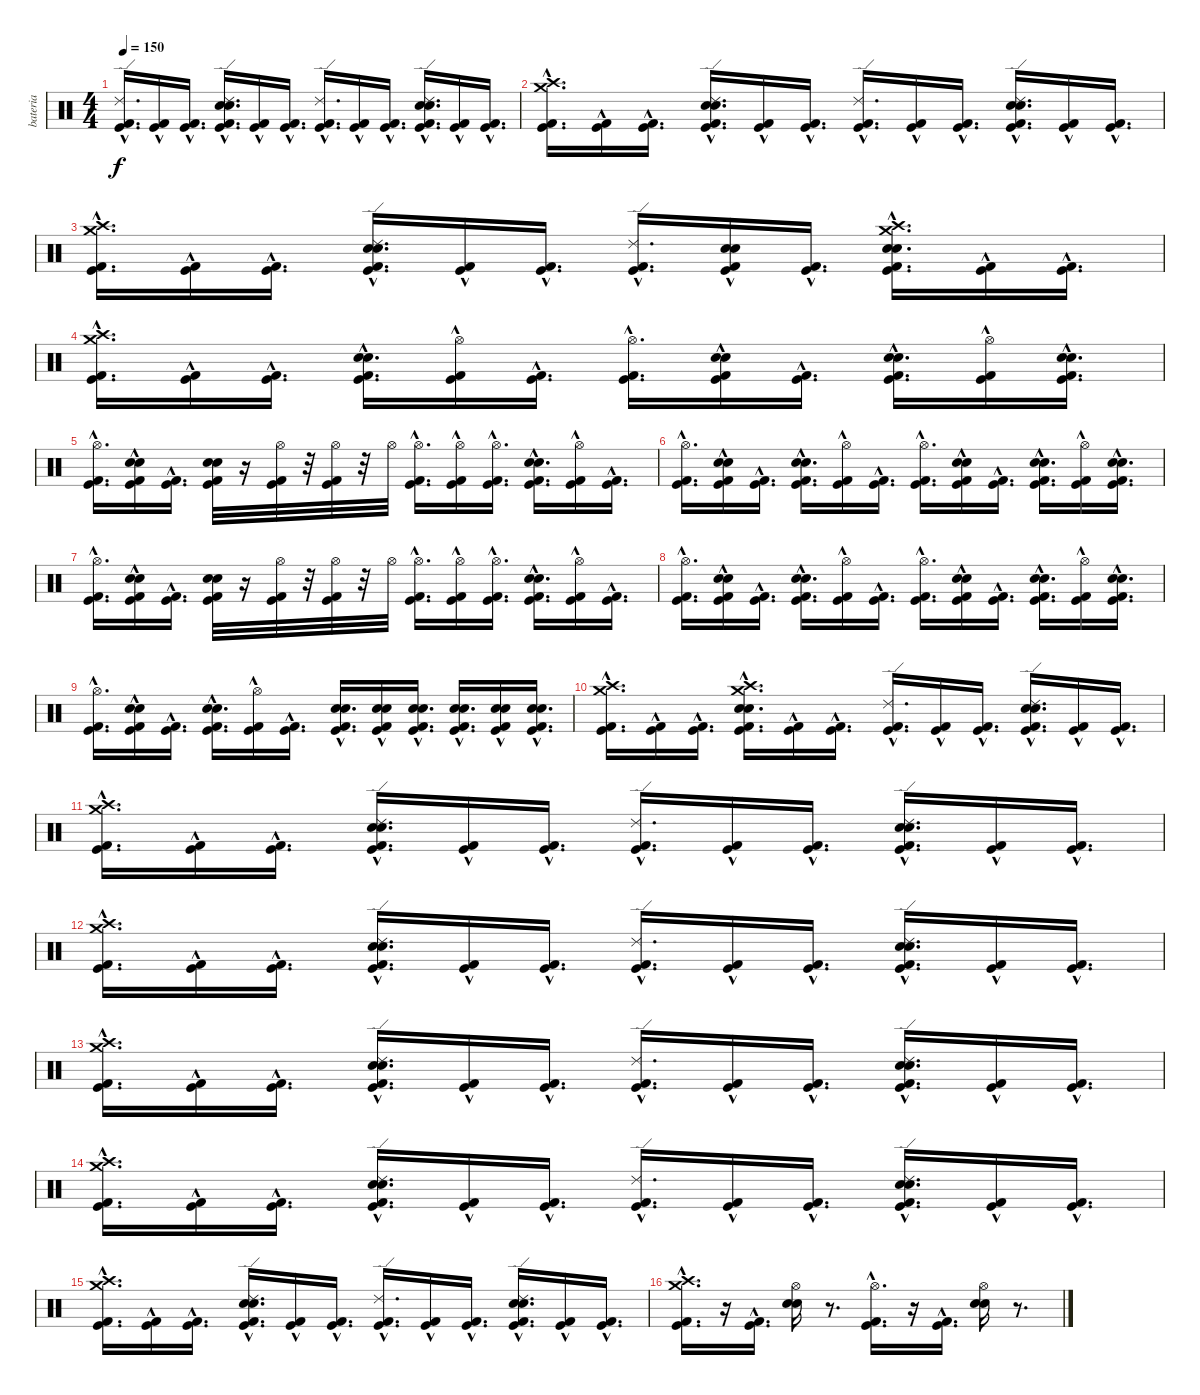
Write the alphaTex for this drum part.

\track ("bateria" "bateria") {instrument percussion}
\staff {score}
\articulation defaults
\ts (4 4)
\tempo 150
\clef neutral
\ks c
("Ride (edge) 2"{hac} "Kick (hit) 2"{hac} "Kick (hit)"{hac}).16{d dy f} ("Kick (hit) 2"{hac} "Kick (hit)"{hac}).16 ("Kick (hit) 2"{hac} "Kick (hit)"{hac}).16{d} ("Electric Snare (hit)"{hac} "Snare (hit) 2"{hac} "Ride (edge) 2"{hac} "Kick (hit) 2"{hac} "Kick (hit)"{hac}).16{d} ("Kick (hit) 2"{hac} "Kick (hit)"{hac}).16 ("Kick (hit) 2"{hac} "Kick (hit)"{hac}).16{d} ("Ride (edge) 2"{hac} "Kick (hit) 2"{hac} "Kick (hit)"{hac}).16{d} ("Kick (hit) 2"{hac} "Kick (hit)"{hac}).16 ("Kick (hit) 2"{hac} "Kick (hit)"{hac}).16{d} ("Electric Snare (hit)"{hac} "Snare (hit) 2"{hac} "Ride (edge) 2"{hac} "Kick (hit) 2"{hac} "Kick (hit)"{hac}).16{d} ("Kick (hit) 2"{hac} "Kick (hit)"{hac}).16 ("Kick (hit) 2"{hac} "Kick (hit)"{hac}).16{d} |
("Crash high (hit)"{hac} "Crash medium (hit)"{hac} "Kick (hit) 2"{hac} "Kick (hit)"{hac}).16{d} ("Kick (hit) 2"{hac} "Kick (hit)"{hac}).16 ("Kick (hit) 2"{hac} "Kick (hit)"{hac}).16{d} ("Electric Snare (hit)"{hac} "Snare (hit) 2"{hac} "Ride (edge) 2"{hac} "Kick (hit) 2"{hac} "Kick (hit)"{hac}).16{d} ("Kick (hit) 2"{hac} "Kick (hit)"{hac}).16 ("Kick (hit) 2"{hac} "Kick (hit)"{hac}).16{d} ("Ride (edge) 2"{hac} "Kick (hit) 2"{hac} "Kick (hit)"{hac}).16{d} ("Kick (hit) 2"{hac} "Kick (hit)"{hac}).16 ("Kick (hit) 2"{hac} "Kick (hit)"{hac}).16{d} ("Electric Snare (hit)"{hac} "Snare (hit) 2"{hac} "Ride (edge) 2"{hac} "Kick (hit) 2"{hac} "Kick (hit)"{hac}).16{d} ("Kick (hit) 2"{hac} "Kick (hit)"{hac}).16 ("Kick (hit) 2"{hac} "Kick (hit)"{hac}).16{d} |
("Crash high (hit)"{hac} "Crash medium (hit)"{hac} "Kick (hit) 2"{hac} "Kick (hit)"{hac}).16{d} ("Kick (hit) 2"{hac} "Kick (hit)"{hac}).16 ("Kick (hit) 2"{hac} "Kick (hit)"{hac}).16{d} ("Electric Snare (hit)"{hac} "Snare (hit) 2"{hac} "Ride (edge) 2"{hac} "Kick (hit) 2"{hac} "Kick (hit)"{hac}).16{d} ("Kick (hit) 2"{hac} "Kick (hit)"{hac}).16 ("Kick (hit) 2"{hac} "Kick (hit)"{hac}).16{d} ("Ride (edge) 2"{hac} "Kick (hit) 2"{hac} "Kick (hit)"{hac}).16{d} ("Electric Snare (hit)"{hac} "Snare (hit) 2"{hac} "Kick (hit) 2"{hac} "Kick (hit)"{hac}).16 ("Kick (hit) 2"{hac} "Kick (hit)"{hac}).16{d} ("Crash medium (hit)"{hac} "Crash high (hit)"{hac} "Electric Snare (hit)"{hac} "Snare (hit) 2"{hac} "Kick (hit) 2"{hac} "Kick (hit)"{hac}).16{d} ("Kick (hit) 2"{hac} "Kick (hit)"{hac}).16 ("Kick (hit) 2"{hac} "Kick (hit)"{hac}).16{d} |
("Crash high (hit)"{hac} "Crash medium (hit)"{hac} "Kick (hit) 2"{hac} "Kick (hit)"{hac}).16{d} ("Kick (hit) 2"{hac} "Kick (hit)"{hac}).16 ("Kick (hit) 2"{hac} "Kick (hit)"{hac}).16{d} ("Electric Snare (hit)"{hac} "Snare (hit) 2"{hac} "Kick (hit) 2"{hac} "Kick (hit)"{hac}).16{d} ("Hi-Hat (open)"{hac} "Kick (hit) 2"{hac} "Kick (hit)"{hac}).16 ("Kick (hit) 2"{hac} "Kick (hit)"{hac}).16{d} ("Hi-Hat (open)"{hac} "Kick (hit) 2"{hac} "Kick (hit)"{hac}).16{d} ("Electric Snare (hit)"{hac} "Snare (hit) 2"{hac} "Kick (hit) 2"{hac} "Kick (hit)"{hac}).16 ("Kick (hit) 2"{hac} "Kick (hit)"{hac}).16{d} ("Electric Snare (hit)"{hac} "Snare (hit) 2"{hac} "Kick (hit) 2"{hac} "Kick (hit)"{hac}).16{d} ("Hi-Hat (open)"{hac} "Kick (hit) 2"{hac} "Kick (hit)"{hac}).16 ("Electric Snare (hit)"{hac} "Snare (hit) 2"{hac} "Kick (hit) 2"{hac} "Kick (hit)"{hac}).16{d} |
("Hi-Hat (open)"{hac} "Kick (hit) 2"{hac} "Kick (hit)"{hac}).16{d} ("Electric Snare (hit)"{hac} "Snare (hit) 2"{hac} "Kick (hit) 2"{hac} "Kick (hit)"{hac}).16 ("Kick (hit) 2"{hac} "Kick (hit)"{hac}).16{d} ("Electric Snare (hit)" "Snare (hit) 2" "Kick (hit) 2" "Kick (hit)").32 r.16 ("Hi-Hat (open)" "Kick (hit) 2" "Kick (hit)").32 r.32 ("Hi-Hat (open)" "Kick (hit)" "Kick (hit) 2").32 r.32 "Hi-Hat (open)".32 ("Hi-Hat (open)"{hac} "Kick (hit) 2"{hac} "Kick (hit)"{hac}).16{d} ("Hi-Hat (open)"{hac} "Kick (hit) 2"{hac} "Kick (hit)"{hac}).16 ("Hi-Hat (open)"{hac} "Kick (hit) 2"{hac} "Kick (hit)"{hac}).16{d} ("Electric Snare (hit)"{hac} "Snare (hit) 2"{hac} "Kick (hit) 2"{hac} "Kick (hit)"{hac}).16{d} ("Hi-Hat (open)"{hac} "Kick (hit) 2"{hac} "Kick (hit)"{hac}).16 ("Kick (hit) 2"{hac} "Kick (hit)"{hac}).16{d} |
("Hi-Hat (open)"{hac} "Kick (hit)"{hac} "Kick (hit) 2"{hac}).16{d} ("Electric Snare (hit)"{hac} "Snare (hit) 2"{hac} "Kick (hit)"{hac} "Kick (hit) 2"{hac}).16 ("Kick (hit)"{hac} "Kick (hit) 2"{hac}).16{d} ("Electric Snare (hit)"{hac} "Snare (hit) 2"{hac} "Kick (hit) 2"{hac} "Kick (hit)"{hac}).16{d} ("Hi-Hat (open)"{hac} "Kick (hit) 2"{hac} "Kick (hit)"{hac}).16 ("Kick (hit) 2"{hac} "Kick (hit)"{hac}).16{d} ("Hi-Hat (open)"{hac} "Kick (hit)"{hac} "Kick (hit) 2"{hac}).16{d} ("Electric Snare (hit)"{hac} "Snare (hit) 2"{hac} "Kick (hit)"{hac} "Kick (hit) 2"{hac}).16 ("Kick (hit)"{hac} "Kick (hit) 2"{hac}).16{d} ("Electric Snare (hit)"{hac} "Snare (hit) 2"{hac} "Kick (hit) 2"{hac} "Kick (hit)"{hac}).16{d} ("Hi-Hat (open)"{hac} "Kick (hit) 2"{hac} "Kick (hit)"{hac}).16 ("Electric Snare (hit)"{hac} "Snare (hit) 2"{hac} "Kick (hit) 2"{hac} "Kick (hit)"{hac}).16{d} |
("Hi-Hat (open)"{hac} "Kick (hit) 2"{hac} "Kick (hit)"{hac}).16{d} ("Electric Snare (hit)"{hac} "Snare (hit) 2"{hac} "Kick (hit) 2"{hac} "Kick (hit)"{hac}).16 ("Kick (hit) 2"{hac} "Kick (hit)"{hac}).16{d} ("Electric Snare (hit)" "Snare (hit) 2" "Kick (hit) 2" "Kick (hit)").32 r.16 ("Hi-Hat (open)" "Kick (hit) 2" "Kick (hit)").32 r.32 ("Hi-Hat (open)" "Kick (hit)" "Kick (hit) 2").32 r.32 "Hi-Hat (open)".32 ("Hi-Hat (open)"{hac} "Kick (hit) 2"{hac} "Kick (hit)"{hac}).16{d} ("Hi-Hat (open)"{hac} "Kick (hit) 2"{hac} "Kick (hit)"{hac}).16 ("Hi-Hat (open)"{hac} "Kick (hit) 2"{hac} "Kick (hit)"{hac}).16{d} ("Electric Snare (hit)"{hac} "Snare (hit) 2"{hac} "Kick (hit) 2"{hac} "Kick (hit)"{hac}).16{d} ("Hi-Hat (open)"{hac} "Kick (hit) 2"{hac} "Kick (hit)"{hac}).16 ("Kick (hit) 2"{hac} "Kick (hit)"{hac}).16{d} |
("Hi-Hat (open)"{hac} "Kick (hit)"{hac} "Kick (hit) 2"{hac}).16{d} ("Electric Snare (hit)"{hac} "Snare (hit) 2"{hac} "Kick (hit)"{hac} "Kick (hit) 2"{hac}).16 ("Kick (hit)"{hac} "Kick (hit) 2"{hac}).16{d} ("Electric Snare (hit)"{hac} "Snare (hit) 2"{hac} "Kick (hit) 2"{hac} "Kick (hit)"{hac}).16{d} ("Hi-Hat (open)"{hac} "Kick (hit) 2"{hac} "Kick (hit)"{hac}).16 ("Kick (hit) 2"{hac} "Kick (hit)"{hac}).16{d} ("Hi-Hat (open)"{hac} "Kick (hit)"{hac} "Kick (hit) 2"{hac}).16{d} ("Electric Snare (hit)"{hac} "Snare (hit) 2"{hac} "Kick (hit)"{hac} "Kick (hit) 2"{hac}).16 ("Kick (hit)"{hac} "Kick (hit) 2"{hac}).16{d} ("Electric Snare (hit)"{hac} "Snare (hit) 2"{hac} "Kick (hit) 2"{hac} "Kick (hit)"{hac}).16{d} ("Hi-Hat (open)"{hac} "Kick (hit) 2"{hac} "Kick (hit)"{hac}).16 ("Electric Snare (hit)"{hac} "Snare (hit) 2"{hac} "Kick (hit) 2"{hac} "Kick (hit)"{hac}).16{d} |
("Hi-Hat (open)"{hac} "Kick (hit) 2"{hac} "Kick (hit)"{hac}).16{d} ("Electric Snare (hit)"{hac} "Snare (hit) 2"{hac} "Kick (hit) 2"{hac} "Kick (hit)"{hac}).16 ("Kick (hit) 2"{hac} "Kick (hit)"{hac}).16{d} ("Electric Snare (hit)"{hac} "Snare (hit) 2"{hac} "Kick (hit) 2"{hac} "Kick (hit)"{hac}).16{d} ("Hi-Hat (open)"{hac} "Kick (hit) 2"{hac} "Kick (hit)"{hac}).16 ("Kick (hit) 2"{hac} "Kick (hit)"{hac}).16{d} ("Electric Snare (hit)"{hac} "Snare (hit) 2"{hac} "Kick (hit) 2"{hac} "Kick (hit)"{hac}).16{d} ("Electric Snare (hit)"{hac} "Snare (hit) 2"{hac} "Kick (hit) 2"{hac} "Kick (hit)"{hac}).16 ("Electric Snare (hit)"{hac} "Snare (hit) 2"{hac} "Kick (hit) 2"{hac} "Kick (hit)"{hac}).16{d} ("Electric Snare (hit)"{hac} "Snare (hit) 2"{hac} "Kick (hit) 2"{hac} "Kick (hit)"{hac}).16{d} ("Electric Snare (hit)"{hac} "Snare (hit) 2"{hac} "Kick (hit) 2"{hac} "Kick (hit)"{hac}).16 ("Electric Snare (hit)"{hac} "Snare (hit) 2"{hac} "Kick (hit) 2"{hac} "Kick (hit)"{hac}).16{d} |
("Crash high (hit)"{hac} "Crash medium (hit)"{hac} "Kick (hit) 2"{hac} "Kick (hit)"{hac}).16{d} ("Kick (hit) 2"{hac} "Kick (hit)"{hac}).16 ("Kick (hit) 2"{hac} "Kick (hit)"{hac}).16{d} ("Electric Snare (hit)"{hac} "Snare (hit) 2"{hac} "Crash high (hit)"{hac} "Crash medium (hit)"{hac} "Kick (hit) 2"{hac} "Kick (hit)"{hac}).16{d} ("Kick (hit) 2"{hac} "Kick (hit)"{hac}).16 ("Kick (hit) 2"{hac} "Kick (hit)"{hac}).16{d} ("Ride (edge) 2"{hac} "Kick (hit) 2"{hac} "Kick (hit)"{hac}).16{d} ("Kick (hit) 2"{hac} "Kick (hit)"{hac}).16 ("Kick (hit) 2"{hac} "Kick (hit)"{hac}).16{d} ("Electric Snare (hit)"{hac} "Snare (hit) 2"{hac} "Ride (edge) 2"{hac} "Kick (hit) 2"{hac} "Kick (hit)"{hac}).16{d} ("Kick (hit) 2"{hac} "Kick (hit)"{hac}).16 ("Kick (hit) 2"{hac} "Kick (hit)"{hac}).16{d} |
("Crash high (hit)"{hac} "Crash medium (hit)"{hac} "Kick (hit) 2"{hac} "Kick (hit)"{hac}).16{d} ("Kick (hit) 2"{hac} "Kick (hit)"{hac}).16 ("Kick (hit) 2"{hac} "Kick (hit)"{hac}).16{d} ("Electric Snare (hit)"{hac} "Snare (hit) 2"{hac} "Ride (edge) 2"{hac} "Kick (hit) 2"{hac} "Kick (hit)"{hac}).16{d} ("Kick (hit) 2"{hac} "Kick (hit)"{hac}).16 ("Kick (hit) 2"{hac} "Kick (hit)"{hac}).16{d} ("Ride (edge) 2"{hac} "Kick (hit) 2"{hac} "Kick (hit)"{hac}).16{d} ("Kick (hit) 2"{hac} "Kick (hit)"{hac}).16 ("Kick (hit) 2"{hac} "Kick (hit)"{hac}).16{d} ("Electric Snare (hit)"{hac} "Snare (hit) 2"{hac} "Ride (edge) 2"{hac} "Kick (hit) 2"{hac} "Kick (hit)"{hac}).16{d} ("Kick (hit) 2"{hac} "Kick (hit)"{hac}).16 ("Kick (hit) 2"{hac} "Kick (hit)"{hac}).16{d} |
("Crash high (hit)"{hac} "Crash medium (hit)"{hac} "Kick (hit) 2"{hac} "Kick (hit)"{hac}).16{d} ("Kick (hit) 2"{hac} "Kick (hit)"{hac}).16 ("Kick (hit) 2"{hac} "Kick (hit)"{hac}).16{d} ("Electric Snare (hit)"{hac} "Snare (hit) 2"{hac} "Ride (edge) 2"{hac} "Kick (hit) 2"{hac} "Kick (hit)"{hac}).16{d} ("Kick (hit) 2"{hac} "Kick (hit)"{hac}).16 ("Kick (hit) 2"{hac} "Kick (hit)"{hac}).16{d} ("Ride (edge) 2"{hac} "Kick (hit) 2"{hac} "Kick (hit)"{hac}).16{d} ("Kick (hit) 2"{hac} "Kick (hit)"{hac}).16 ("Kick (hit) 2"{hac} "Kick (hit)"{hac}).16{d} ("Electric Snare (hit)"{hac} "Snare (hit) 2"{hac} "Ride (edge) 2"{hac} "Kick (hit) 2"{hac} "Kick (hit)"{hac}).16{d} ("Kick (hit) 2"{hac} "Kick (hit)"{hac}).16 ("Kick (hit) 2"{hac} "Kick (hit)"{hac}).16{d} |
("Crash high (hit)"{hac} "Crash medium (hit)"{hac} "Kick (hit) 2"{hac} "Kick (hit)"{hac}).16{d} ("Kick (hit) 2"{hac} "Kick (hit)"{hac}).16 ("Kick (hit) 2"{hac} "Kick (hit)"{hac}).16{d} ("Electric Snare (hit)"{hac} "Snare (hit) 2"{hac} "Ride (edge) 2"{hac} "Kick (hit) 2"{hac} "Kick (hit)"{hac}).16{d} ("Kick (hit) 2"{hac} "Kick (hit)"{hac}).16 ("Kick (hit) 2"{hac} "Kick (hit)"{hac}).16{d} ("Ride (edge) 2"{hac} "Kick (hit) 2"{hac} "Kick (hit)"{hac}).16{d} ("Kick (hit) 2"{hac} "Kick (hit)"{hac}).16 ("Kick (hit) 2"{hac} "Kick (hit)"{hac}).16{d} ("Electric Snare (hit)"{hac} "Snare (hit) 2"{hac} "Ride (edge) 2"{hac} "Kick (hit) 2"{hac} "Kick (hit)"{hac}).16{d} ("Kick (hit) 2"{hac} "Kick (hit)"{hac}).16 ("Kick (hit) 2"{hac} "Kick (hit)"{hac}).16{d} |
("Crash high (hit)"{hac} "Crash medium (hit)"{hac} "Kick (hit) 2"{hac} "Kick (hit)"{hac}).16{d} ("Kick (hit) 2"{hac} "Kick (hit)"{hac}).16 ("Kick (hit) 2"{hac} "Kick (hit)"{hac}).16{d} ("Electric Snare (hit)"{hac} "Snare (hit) 2"{hac} "Ride (edge) 2"{hac} "Kick (hit) 2"{hac} "Kick (hit)"{hac}).16{d} ("Kick (hit) 2"{hac} "Kick (hit)"{hac}).16 ("Kick (hit) 2"{hac} "Kick (hit)"{hac}).16{d} ("Ride (edge) 2"{hac} "Kick (hit) 2"{hac} "Kick (hit)"{hac}).16{d} ("Kick (hit) 2"{hac} "Kick (hit)"{hac}).16 ("Kick (hit) 2"{hac} "Kick (hit)"{hac}).16{d} ("Electric Snare (hit)"{hac} "Snare (hit) 2"{hac} "Ride (edge) 2"{hac} "Kick (hit) 2"{hac} "Kick (hit)"{hac}).16{d} ("Kick (hit) 2"{hac} "Kick (hit)"{hac}).16 ("Kick (hit) 2"{hac} "Kick (hit)"{hac}).16{d} |
("Crash high (hit)"{hac} "Crash medium (hit)"{hac} "Kick (hit) 2"{hac} "Kick (hit)"{hac}).16{d} ("Kick (hit) 2"{hac} "Kick (hit)"{hac}).16 ("Kick (hit) 2"{hac} "Kick (hit)"{hac}).16{d} ("Electric Snare (hit)"{hac} "Snare (hit) 2"{hac} "Ride (edge) 2"{hac} "Kick (hit) 2"{hac} "Kick (hit)"{hac}).16{d} ("Kick (hit) 2"{hac} "Kick (hit)"{hac}).16 ("Kick (hit) 2"{hac} "Kick (hit)"{hac}).16{d} ("Ride (edge) 2"{hac} "Kick (hit) 2"{hac} "Kick (hit)"{hac}).16{d} ("Kick (hit) 2"{hac} "Kick (hit)"{hac}).16 ("Kick (hit) 2"{hac} "Kick (hit)"{hac}).16{d} ("Electric Snare (hit)"{hac} "Snare (hit) 2"{hac} "Ride (edge) 2"{hac} "Kick (hit) 2"{hac} "Kick (hit)"{hac}).16{d} ("Kick (hit) 2"{hac} "Kick (hit)"{hac}).16 ("Kick (hit) 2"{hac} "Kick (hit)"{hac}).16{d} |
("Crash high (hit)"{hac} "Crash medium (hit)"{hac} "Kick (hit) 2"{hac} "Kick (hit)"{hac}).16{d} r.16 ("Kick (hit) 2"{hac} "Kick (hit)"{hac}).16{d} ("Hi-Hat (open)" "Electric Snare (hit)" "Snare (hit) 2").16 r.8{d} ("Hi-Hat (open)"{hac} "Kick (hit) 2"{hac} "Kick (hit)"{hac}).16{d} r.16 ("Kick (hit) 2"{hac} "Kick (hit)"{hac}).16{d} ("Hi-Hat (open)" "Electric Snare (hit)" "Snare (hit) 2").16 r.8{d}
